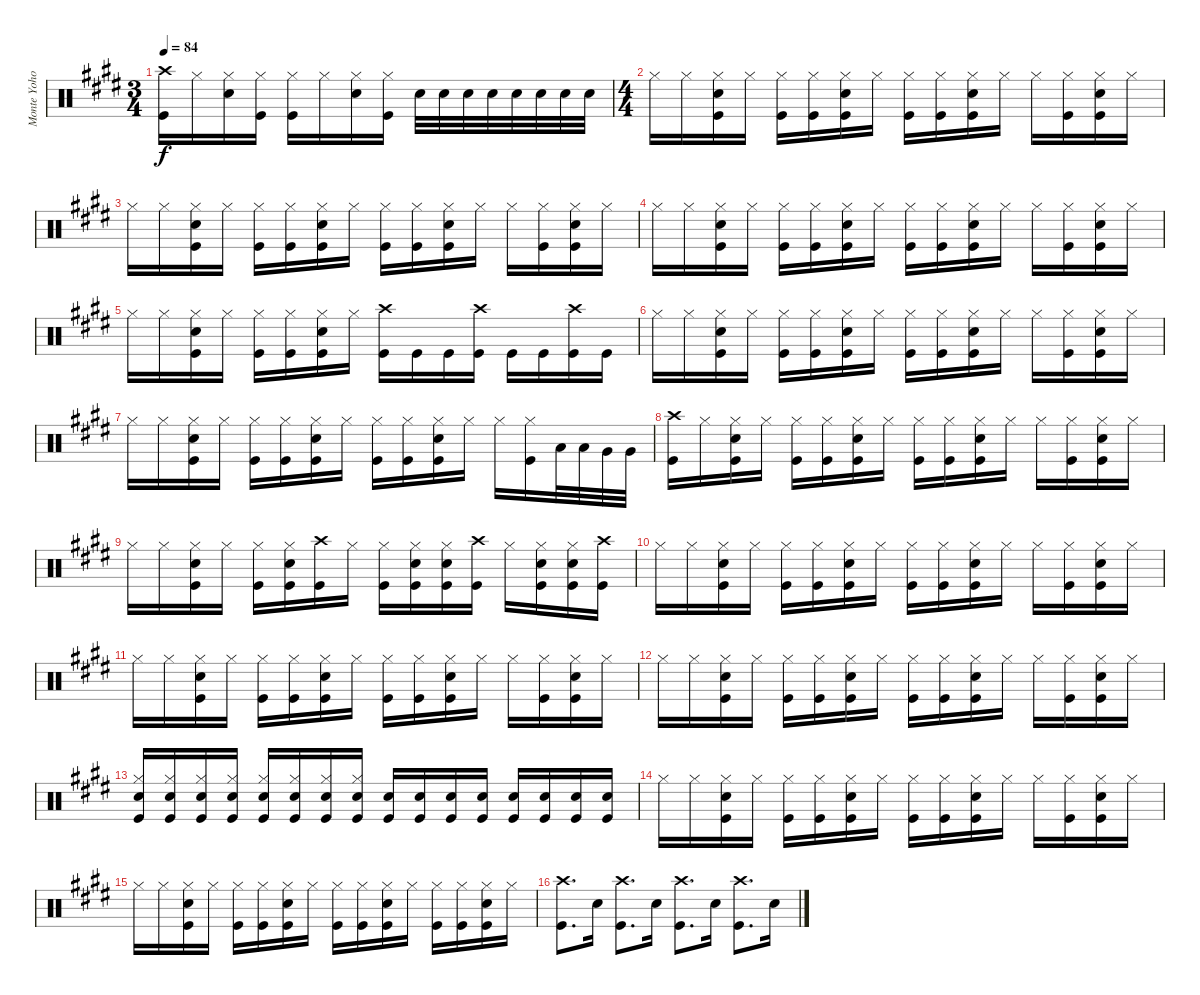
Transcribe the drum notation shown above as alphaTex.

\track ("Monte Yoho Drums" "Monte Yoho") {instrument percussion}
\staff {score}
\articulation defaults
\ts (3 4)
\tempo 84
\clef neutral
\ks e
("Crash high (hit)" "Kick (hit)").16{dy f} "Hi-Hat (closed)".16 ("Hi-Hat (closed)" "Snare (hit) 2").16 ("Hi-Hat (closed)" "Kick (hit)").16 ("Hi-Hat (closed)" "Kick (hit)").16 "Hi-Hat (closed)".16 ("Hi-Hat (closed)" "Snare (hit) 2").16 ("Hi-Hat (closed)" "Kick (hit)").16 "Snare (hit) 2".32 "Snare (hit) 2".32 "Snare (hit) 2".32 "Snare (hit) 2".32 "Snare (hit) 2".32 "Snare (hit) 2".32 "Snare (hit) 2".32 "Snare (hit) 2".32 |
\ts (4 4)
"Hi-Hat (closed)".16 "Hi-Hat (closed)".16 ("Hi-Hat (closed)" "Snare (hit) 2" "Kick (hit)").16 "Hi-Hat (closed)".16 ("Hi-Hat (closed)" "Kick (hit)").16 ("Hi-Hat (closed)" "Kick (hit)").16 ("Hi-Hat (closed)" "Snare (hit) 2" "Kick (hit)").16 "Hi-Hat (closed)".16 ("Hi-Hat (closed)" "Kick (hit)").16 ("Hi-Hat (closed)" "Kick (hit)").16 ("Hi-Hat (closed)" "Snare (hit) 2" "Kick (hit)").16 "Hi-Hat (closed)".16 "Hi-Hat (closed)".16 ("Hi-Hat (closed)" "Kick (hit)").16 ("Hi-Hat (closed)" "Snare (hit) 2" "Kick (hit)").16 "Hi-Hat (closed)".16 |
"Hi-Hat (closed)".16 "Hi-Hat (closed)".16 ("Hi-Hat (closed)" "Snare (hit) 2" "Kick (hit)").16 "Hi-Hat (closed)".16 ("Hi-Hat (closed)" "Kick (hit)").16 ("Hi-Hat (closed)" "Kick (hit)").16 ("Hi-Hat (closed)" "Snare (hit) 2" "Kick (hit)").16 "Hi-Hat (closed)".16 ("Hi-Hat (closed)" "Kick (hit)").16 ("Hi-Hat (closed)" "Kick (hit)").16 ("Hi-Hat (closed)" "Snare (hit) 2" "Kick (hit)").16 "Hi-Hat (closed)".16 "Hi-Hat (closed)".16 ("Hi-Hat (closed)" "Kick (hit)").16 ("Hi-Hat (closed)" "Snare (hit) 2" "Kick (hit)").16 "Hi-Hat (closed)".16 |
"Hi-Hat (closed)".16 "Hi-Hat (closed)".16 ("Hi-Hat (closed)" "Snare (hit) 2" "Kick (hit)").16 "Hi-Hat (closed)".16 ("Hi-Hat (closed)" "Kick (hit)").16 ("Hi-Hat (closed)" "Kick (hit)").16 ("Hi-Hat (closed)" "Snare (hit) 2" "Kick (hit)").16 "Hi-Hat (closed)".16 ("Hi-Hat (closed)" "Kick (hit)").16 ("Hi-Hat (closed)" "Kick (hit)").16 ("Hi-Hat (closed)" "Snare (hit) 2" "Kick (hit)").16 "Hi-Hat (closed)".16 "Hi-Hat (closed)".16 ("Hi-Hat (closed)" "Kick (hit)").16 ("Hi-Hat (closed)" "Snare (hit) 2" "Kick (hit)").16 "Hi-Hat (closed)".16 |
"Hi-Hat (closed)".16 "Hi-Hat (closed)".16 ("Hi-Hat (closed)" "Snare (hit) 2" "Kick (hit)").16 "Hi-Hat (closed)".16 ("Hi-Hat (closed)" "Kick (hit)").16 ("Hi-Hat (closed)" "Kick (hit)").16 ("Hi-Hat (closed)" "Snare (hit) 2" "Kick (hit)").16 "Hi-Hat (closed)".16 ("Crash high (hit)" "Kick (hit)").16 "Kick (hit)".16 "Kick (hit)".16 ("Crash high (hit)" "Kick (hit)").16 "Kick (hit)".16 "Kick (hit)".16 ("Crash high (hit)" "Kick (hit)").16 "Kick (hit)".16 |
"Hi-Hat (closed)".16 "Hi-Hat (closed)".16 ("Hi-Hat (closed)" "Snare (hit) 2" "Kick (hit)").16 "Hi-Hat (closed)".16 ("Hi-Hat (closed)" "Kick (hit)").16 ("Hi-Hat (closed)" "Kick (hit)").16 ("Hi-Hat (closed)" "Snare (hit) 2" "Kick (hit)").16 "Hi-Hat (closed)".16 ("Hi-Hat (closed)" "Kick (hit)").16 ("Hi-Hat (closed)" "Kick (hit)").16 ("Hi-Hat (closed)" "Snare (hit) 2" "Kick (hit)").16 "Hi-Hat (closed)".16 "Hi-Hat (closed)".16 ("Hi-Hat (closed)" "Kick (hit)").16 ("Hi-Hat (closed)" "Snare (hit) 2" "Kick (hit)").16 "Hi-Hat (closed)".16 |
"Hi-Hat (closed)".16 "Hi-Hat (closed)".16 ("Hi-Hat (closed)" "Snare (hit) 2" "Kick (hit)").16 "Hi-Hat (closed)".16 ("Hi-Hat (closed)" "Kick (hit)").16 ("Hi-Hat (closed)" "Kick (hit)").16 ("Hi-Hat (closed)" "Snare (hit) 2" "Kick (hit)").16 "Hi-Hat (closed)".16 ("Hi-Hat (closed)" "Kick (hit)").16 ("Hi-Hat (closed)" "Kick (hit)").16 ("Hi-Hat (closed)" "Snare (hit) 2" "Kick (hit)").16 "Hi-Hat (closed)".16 "Hi-Hat (closed)".16 ("Hi-Hat (closed)" "Kick (hit)").16 "Low Tom (hit)".32 "Low Tom (hit)".32 "Very Low Tom (hit)".32 "Very Low Tom (hit)".32 |
("Crash high (hit)" "Kick (hit)").16 "Hi-Hat (closed)".16 ("Hi-Hat (closed)" "Snare (hit) 2" "Kick (hit)").16 "Hi-Hat (closed)".16 ("Hi-Hat (closed)" "Kick (hit)").16 ("Hi-Hat (closed)" "Kick (hit)").16 ("Hi-Hat (closed)" "Snare (hit) 2" "Kick (hit)").16 "Hi-Hat (closed)".16 ("Hi-Hat (closed)" "Kick (hit)").16 ("Hi-Hat (closed)" "Kick (hit)").16 ("Hi-Hat (closed)" "Snare (hit) 2" "Kick (hit)").16 "Hi-Hat (closed)".16 "Hi-Hat (closed)".16 ("Hi-Hat (closed)" "Kick (hit)").16 ("Hi-Hat (closed)" "Snare (hit) 2" "Kick (hit)").16 "Hi-Hat (closed)".16 |
"Hi-Hat (closed)".16 "Hi-Hat (closed)".16 ("Hi-Hat (closed)" "Snare (hit) 2" "Kick (hit)").16 "Hi-Hat (closed)".16 ("Hi-Hat (closed)" "Kick (hit)").16 ("Hi-Hat (closed)" "Snare (hit) 2" "Kick (hit)").16 ("Crash high (hit)" "Kick (hit)").16 "Hi-Hat (closed)".16 ("Hi-Hat (closed)" "Kick (hit)").16 ("Hi-Hat (closed)" "Snare (hit) 2" "Kick (hit)").16 ("Hi-Hat (closed)" "Snare (hit) 2" "Kick (hit)").16 ("Crash high (hit)" "Kick (hit)").16 "Hi-Hat (closed)".16 ("Hi-Hat (closed)" "Snare (hit) 2" "Kick (hit)").16 ("Hi-Hat (closed)" "Snare (hit) 2" "Kick (hit)").16 ("Crash high (hit)" "Kick (hit)").16 |
"Hi-Hat (closed)".16 "Hi-Hat (closed)".16 ("Hi-Hat (closed)" "Snare (hit) 2" "Kick (hit)").16 "Hi-Hat (closed)".16 ("Hi-Hat (closed)" "Kick (hit)").16 ("Hi-Hat (closed)" "Kick (hit)").16 ("Hi-Hat (closed)" "Snare (hit) 2" "Kick (hit)").16 "Hi-Hat (closed)".16 ("Hi-Hat (closed)" "Kick (hit)").16 ("Hi-Hat (closed)" "Kick (hit)").16 ("Hi-Hat (closed)" "Snare (hit) 2" "Kick (hit)").16 "Hi-Hat (closed)".16 "Hi-Hat (closed)".16 ("Hi-Hat (closed)" "Kick (hit)").16 ("Hi-Hat (closed)" "Snare (hit) 2" "Kick (hit)").16 "Hi-Hat (closed)".16 |
"Hi-Hat (closed)".16 "Hi-Hat (closed)".16 ("Hi-Hat (closed)" "Snare (hit) 2" "Kick (hit)").16 "Hi-Hat (closed)".16 ("Hi-Hat (closed)" "Kick (hit)").16 ("Hi-Hat (closed)" "Kick (hit)").16 ("Hi-Hat (closed)" "Snare (hit) 2" "Kick (hit)").16 "Hi-Hat (closed)".16 ("Hi-Hat (closed)" "Kick (hit)").16 ("Hi-Hat (closed)" "Kick (hit)").16 ("Hi-Hat (closed)" "Snare (hit) 2" "Kick (hit)").16 "Hi-Hat (closed)".16 "Hi-Hat (closed)".16 ("Hi-Hat (closed)" "Kick (hit)").16 ("Hi-Hat (closed)" "Snare (hit) 2" "Kick (hit)").16 "Hi-Hat (closed)".16 |
"Hi-Hat (closed)".16 "Hi-Hat (closed)".16 ("Hi-Hat (closed)" "Snare (hit) 2" "Kick (hit)").16 "Hi-Hat (closed)".16 ("Hi-Hat (closed)" "Kick (hit)").16 ("Hi-Hat (closed)" "Kick (hit)").16 ("Hi-Hat (closed)" "Snare (hit) 2" "Kick (hit)").16 "Hi-Hat (closed)".16 ("Hi-Hat (closed)" "Kick (hit)").16 ("Hi-Hat (closed)" "Kick (hit)").16 ("Hi-Hat (closed)" "Snare (hit) 2" "Kick (hit)").16 "Hi-Hat (closed)".16 "Hi-Hat (closed)".16 ("Hi-Hat (closed)" "Kick (hit)").16 ("Hi-Hat (closed)" "Snare (hit) 2" "Kick (hit)").16 "Hi-Hat (closed)".16 |
("Hi-Hat (closed)" "Snare (hit) 2" "Kick (hit)").16 ("Hi-Hat (closed)" "Snare (hit) 2" "Kick (hit)").16 ("Hi-Hat (closed)" "Snare (hit) 2" "Kick (hit)").16 ("Hi-Hat (closed)" "Snare (hit) 2" "Kick (hit)").16 ("Hi-Hat (closed)" "Snare (hit) 2" "Kick (hit)").16 ("Hi-Hat (closed)" "Snare (hit) 2" "Kick (hit)").16 ("Hi-Hat (closed)" "Snare (hit) 2" "Kick (hit)").16 ("Hi-Hat (closed)" "Snare (hit) 2" "Kick (hit)").16 ("Snare (hit) 2" "Kick (hit)").16 ("Snare (hit) 2" "Kick (hit)").16 ("Snare (hit) 2" "Kick (hit)").16 ("Snare (hit) 2" "Kick (hit)").16 ("Snare (hit) 2" "Kick (hit)").16 ("Snare (hit) 2" "Kick (hit)").16 ("Snare (hit) 2" "Kick (hit)").16 ("Snare (hit) 2" "Kick (hit)").16 |
"Hi-Hat (closed)".16 "Hi-Hat (closed)".16 ("Hi-Hat (closed)" "Snare (hit) 2" "Kick (hit)").16 "Hi-Hat (closed)".16 ("Hi-Hat (closed)" "Kick (hit)").16 ("Hi-Hat (closed)" "Kick (hit)").16 ("Hi-Hat (closed)" "Snare (hit) 2" "Kick (hit)").16 "Hi-Hat (closed)".16 ("Hi-Hat (closed)" "Kick (hit)").16 ("Hi-Hat (closed)" "Kick (hit)").16 ("Hi-Hat (closed)" "Snare (hit) 2" "Kick (hit)").16 "Hi-Hat (closed)".16 "Hi-Hat (closed)".16 ("Hi-Hat (closed)" "Kick (hit)").16 ("Hi-Hat (closed)" "Snare (hit) 2" "Kick (hit)").16 "Hi-Hat (closed)".16 |
"Hi-Hat (closed)".16 "Hi-Hat (closed)".16 ("Hi-Hat (closed)" "Snare (hit) 2" "Kick (hit)").16 "Hi-Hat (closed)".16 ("Hi-Hat (closed)" "Kick (hit)").16 ("Hi-Hat (closed)" "Kick (hit)").16 ("Hi-Hat (closed)" "Snare (hit) 2" "Kick (hit)").16 "Hi-Hat (closed)".16 ("Hi-Hat (closed)" "Kick (hit)").16 ("Hi-Hat (closed)" "Kick (hit)").16 ("Hi-Hat (closed)" "Snare (hit) 2" "Kick (hit)").16 "Hi-Hat (closed)".16 ("Hi-Hat (closed)" "Kick (hit)").16 ("Hi-Hat (closed)" "Kick (hit)").16 ("Hi-Hat (closed)" "Snare (hit) 2" "Kick (hit)").16 "Hi-Hat (closed)".16 |
("Crash high (hit)" "Kick (hit)").8{d} "Snare (hit) 2".16 ("Crash high (hit)" "Kick (hit)").8{d} "Snare (hit) 2".16 ("Crash high (hit)" "Kick (hit)").8{d} "Snare (hit) 2".16 ("Crash high (hit)" "Kick (hit)").8{d} "Snare (hit) 2".16
